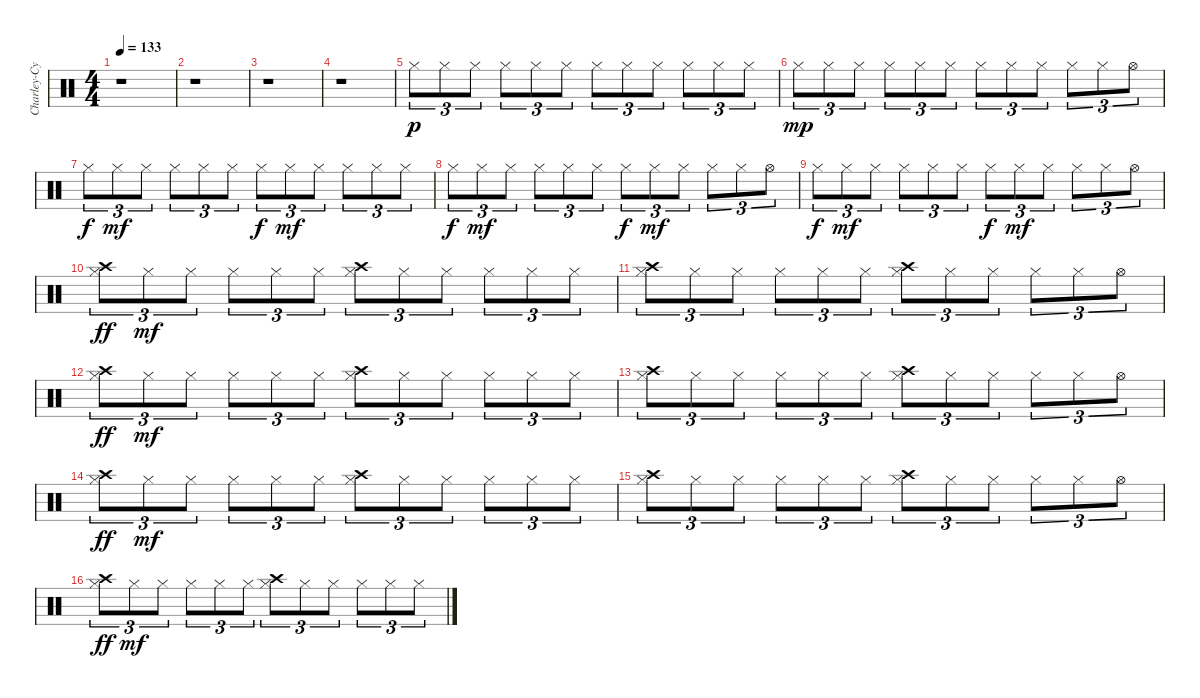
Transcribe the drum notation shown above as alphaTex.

\track ("Charley-Cymbales" "Charley-Cy") {instrument percussion}
\staff {score}
\articulation defaults
\ts (4 4)
\tempo 133
\clef neutral
\ks c
r.1{dy mf} |
r.1 |
r.1 |
r.1 |
"Hi-Hat (closed)".8{tu (3 2) dy p} "Hi-Hat (closed)".8{tu (3 2)} "Hi-Hat (closed)".8{tu (3 2)} "Hi-Hat (closed)".8{tu (3 2)} "Hi-Hat (closed)".8{tu (3 2)} "Hi-Hat (closed)".8{tu (3 2)} "Hi-Hat (closed)".8{tu (3 2)} "Hi-Hat (closed)".8{tu (3 2)} "Hi-Hat (closed)".8{tu (3 2)} "Hi-Hat (closed)".8{tu (3 2)} "Hi-Hat (closed)".8{tu (3 2)} "Hi-Hat (closed)".8{tu (3 2)} |
"Hi-Hat (closed)".8{tu (3 2) dy mp} "Hi-Hat (closed)".8{tu (3 2)} "Hi-Hat (closed)".8{tu (3 2)} "Hi-Hat (closed)".8{tu (3 2)} "Hi-Hat (closed)".8{tu (3 2)} "Hi-Hat (closed)".8{tu (3 2)} "Hi-Hat (closed)".8{tu (3 2)} "Hi-Hat (closed)".8{tu (3 2)} "Hi-Hat (closed)".8{tu (3 2)} "Hi-Hat (closed)".8{tu (3 2)} "Hi-Hat (closed)".8{tu (3 2)} "Hi-Hat (open)".8{tu (3 2)} |
"Hi-Hat (closed)".8{tu (3 2) dy f} "Hi-Hat (closed)".8{tu (3 2) dy mf} "Hi-Hat (closed)".8{tu (3 2)} "Hi-Hat (closed)".8{tu (3 2)} "Hi-Hat (closed)".8{tu (3 2)} "Hi-Hat (closed)".8{tu (3 2)} "Hi-Hat (closed)".8{tu (3 2) dy f} "Hi-Hat (closed)".8{tu (3 2) dy mf} "Hi-Hat (closed)".8{tu (3 2)} "Hi-Hat (closed)".8{tu (3 2)} "Hi-Hat (closed)".8{tu (3 2)} "Hi-Hat (closed)".8{tu (3 2)} |
"Hi-Hat (closed)".8{tu (3 2) dy f} "Hi-Hat (closed)".8{tu (3 2) dy mf} "Hi-Hat (closed)".8{tu (3 2)} "Hi-Hat (closed)".8{tu (3 2)} "Hi-Hat (closed)".8{tu (3 2)} "Hi-Hat (closed)".8{tu (3 2)} "Hi-Hat (closed)".8{tu (3 2) dy f} "Hi-Hat (closed)".8{tu (3 2) dy mf} "Hi-Hat (closed)".8{tu (3 2)} "Hi-Hat (closed)".8{tu (3 2)} "Hi-Hat (closed)".8{tu (3 2)} "Hi-Hat (open)".8{tu (3 2)} |
"Hi-Hat (closed)".8{tu (3 2) dy f} "Hi-Hat (closed)".8{tu (3 2) dy mf} "Hi-Hat (closed)".8{tu (3 2)} "Hi-Hat (closed)".8{tu (3 2)} "Hi-Hat (closed)".8{tu (3 2)} "Hi-Hat (closed)".8{tu (3 2)} "Hi-Hat (closed)".8{tu (3 2) dy f} "Hi-Hat (closed)".8{tu (3 2) dy mf} "Hi-Hat (closed)".8{tu (3 2)} "Hi-Hat (closed)".8{tu (3 2)} "Hi-Hat (closed)".8{tu (3 2)} "Hi-Hat (open)".8{tu (3 2)} |
("Crash high (hit)" "Hi-Hat (closed)").8{tu (3 2) dy ff} "Hi-Hat (closed)".8{tu (3 2) dy mf} "Hi-Hat (closed)".8{tu (3 2)} "Hi-Hat (closed)".8{tu (3 2)} "Hi-Hat (closed)".8{tu (3 2)} "Hi-Hat (closed)".8{tu (3 2)} ("Crash high (hit)" "Hi-Hat (closed)").8{tu (3 2)} "Hi-Hat (closed)".8{tu (3 2)} "Hi-Hat (closed)".8{tu (3 2)} "Hi-Hat (closed)".8{tu (3 2)} "Hi-Hat (closed)".8{tu (3 2)} "Hi-Hat (closed)".8{tu (3 2)} |
("Crash high (hit)" "Hi-Hat (closed)").8{tu (3 2)} "Hi-Hat (closed)".8{tu (3 2)} "Hi-Hat (closed)".8{tu (3 2)} "Hi-Hat (closed)".8{tu (3 2)} "Hi-Hat (closed)".8{tu (3 2)} "Hi-Hat (closed)".8{tu (3 2)} ("Crash high (hit)" "Hi-Hat (closed)").8{tu (3 2)} "Hi-Hat (closed)".8{tu (3 2)} "Hi-Hat (closed)".8{tu (3 2)} "Hi-Hat (closed)".8{tu (3 2)} "Hi-Hat (closed)".8{tu (3 2)} "Hi-Hat (open)".8{tu (3 2)} |
("Crash high (hit)" "Hi-Hat (closed)").8{tu (3 2) dy ff} "Hi-Hat (closed)".8{tu (3 2) dy mf} "Hi-Hat (closed)".8{tu (3 2)} "Hi-Hat (closed)".8{tu (3 2)} "Hi-Hat (closed)".8{tu (3 2)} "Hi-Hat (closed)".8{tu (3 2)} ("Crash high (hit)" "Hi-Hat (closed)").8{tu (3 2)} "Hi-Hat (closed)".8{tu (3 2)} "Hi-Hat (closed)".8{tu (3 2)} "Hi-Hat (closed)".8{tu (3 2)} "Hi-Hat (closed)".8{tu (3 2)} "Hi-Hat (closed)".8{tu (3 2)} |
("Crash high (hit)" "Hi-Hat (closed)").8{tu (3 2)} "Hi-Hat (closed)".8{tu (3 2)} "Hi-Hat (closed)".8{tu (3 2)} "Hi-Hat (closed)".8{tu (3 2)} "Hi-Hat (closed)".8{tu (3 2)} "Hi-Hat (closed)".8{tu (3 2)} ("Crash high (hit)" "Hi-Hat (closed)").8{tu (3 2)} "Hi-Hat (closed)".8{tu (3 2)} "Hi-Hat (closed)".8{tu (3 2)} "Hi-Hat (closed)".8{tu (3 2)} "Hi-Hat (closed)".8{tu (3 2)} "Hi-Hat (open)".8{tu (3 2)} |
("Crash high (hit)" "Hi-Hat (closed)").8{tu (3 2) dy ff} "Hi-Hat (closed)".8{tu (3 2) dy mf} "Hi-Hat (closed)".8{tu (3 2)} "Hi-Hat (closed)".8{tu (3 2)} "Hi-Hat (closed)".8{tu (3 2)} "Hi-Hat (closed)".8{tu (3 2)} ("Crash high (hit)" "Hi-Hat (closed)").8{tu (3 2)} "Hi-Hat (closed)".8{tu (3 2)} "Hi-Hat (closed)".8{tu (3 2)} "Hi-Hat (closed)".8{tu (3 2)} "Hi-Hat (closed)".8{tu (3 2)} "Hi-Hat (closed)".8{tu (3 2)} |
("Crash high (hit)" "Hi-Hat (closed)").8{tu (3 2)} "Hi-Hat (closed)".8{tu (3 2)} "Hi-Hat (closed)".8{tu (3 2)} "Hi-Hat (closed)".8{tu (3 2)} "Hi-Hat (closed)".8{tu (3 2)} "Hi-Hat (closed)".8{tu (3 2)} ("Crash high (hit)" "Hi-Hat (closed)").8{tu (3 2)} "Hi-Hat (closed)".8{tu (3 2)} "Hi-Hat (closed)".8{tu (3 2)} "Hi-Hat (closed)".8{tu (3 2)} "Hi-Hat (closed)".8{tu (3 2)} "Hi-Hat (open)".8{tu (3 2)} |
("Crash high (hit)" "Hi-Hat (closed)").8{tu (3 2) dy ff} "Hi-Hat (closed)".8{tu (3 2) dy mf} "Hi-Hat (closed)".8{tu (3 2)} "Hi-Hat (closed)".8{tu (3 2)} "Hi-Hat (closed)".8{tu (3 2)} "Hi-Hat (closed)".8{tu (3 2)} ("Crash high (hit)" "Hi-Hat (closed)").8{tu (3 2)} "Hi-Hat (closed)".8{tu (3 2)} "Hi-Hat (closed)".8{tu (3 2)} "Hi-Hat (closed)".8{tu (3 2)} "Hi-Hat (closed)".8{tu (3 2)} "Hi-Hat (closed)".8{tu (3 2)}
